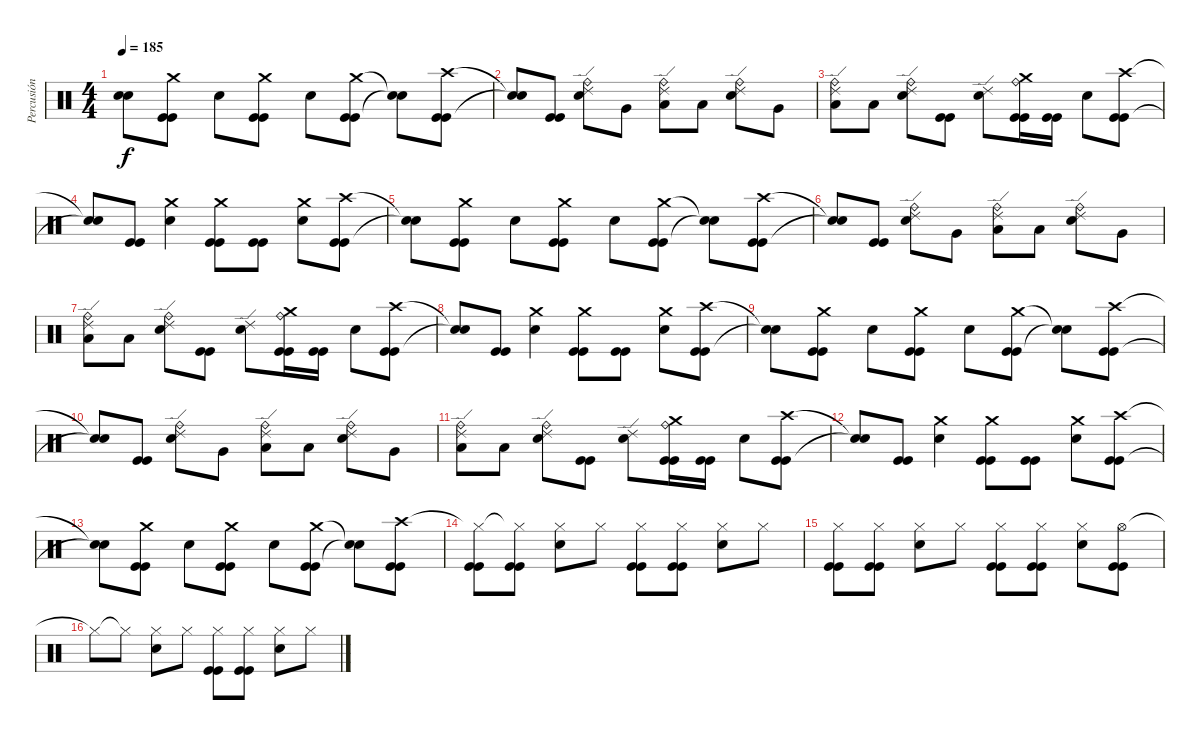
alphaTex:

\track ("Percusión" "Percusión") {instrument percussion}
\staff {score}
\articulation defaults
\ts (4 4)
\tempo 185
\clef neutral
\ks c
("Snare (hit)"{t} "Snare (hit)"{t}).8{dy f} ("Crash medium (hit)" "Kick (hit)" "Kick (hit)").8 "Electric Snare (hit)".8 ("Crash medium (hit)" "Kick (hit)" "Kick (hit)").8 "Electric Snare (hit)".8 ("Crash medium (hit)" "Kick (hit)" "Kick (hit)").8 ("Snare (hit)"{t} "Snare (hit)"{t}).8 ("Crash high (hit)" "Kick (hit)" "Kick (hit)").8 |
("Snare (hit)"{t} "Snare (hit)"{t}).8 ("Kick (hit)" "Kick (hit)").8 ("Ride (edge) 2" "Ride (bell)" "Electric Snare (hit)").8 "Very Low Tom (hit)".8 ("Ride (edge) 2" "Ride (bell)" "Low Floor Tom (hit)").8 "Low Floor Tom (hit)".8 ("Ride (edge) 2" "Ride (bell)" "Electric Snare (hit)").8 "Very Low Tom (hit)".8 |
("Ride (edge) 2" "Ride (bell)" "Low Floor Tom (hit)").8 "Low Floor Tom (hit)".8 ("Ride (edge) 2" "Ride (bell)" "Electric Snare (hit)").8 ("Kick (hit)" "Kick (hit)").8 ("Ride (edge) 2" "Electric Snare (hit)").8 ("Crash medium (hit)" "Ride (bell)" "Kick (hit)" "Kick (hit)").16 ("Kick (hit)" "Kick (hit)").16 "Electric Snare (hit)".8 ("Crash high (hit)" "Kick (hit)" "Kick (hit)").8 |
("Snare (hit)"{t} "Snare (hit)"{t}).8 ("Kick (hit)" "Kick (hit)").8 ("Crash medium (hit)" "Electric Snare (hit)").4 ("Crash medium (hit)" "Kick (hit)" "Kick (hit)").8 ("Kick (hit)" "Kick (hit)").8 ("Crash medium (hit)" "Electric Snare (hit)").8 ("Crash high (hit)" "Kick (hit)" "Kick (hit)").8 |
("Snare (hit)"{t} "Snare (hit)"{t}).8 ("Crash medium (hit)" "Kick (hit)" "Kick (hit)").8 "Electric Snare (hit)".8 ("Crash medium (hit)" "Kick (hit)" "Kick (hit)").8 "Electric Snare (hit)".8 ("Crash medium (hit)" "Kick (hit)" "Kick (hit)").8 ("Snare (hit)"{t} "Snare (hit)"{t}).8 ("Crash high (hit)" "Kick (hit)" "Kick (hit)").8 |
("Snare (hit)"{t} "Snare (hit)"{t}).8 ("Kick (hit)" "Kick (hit)").8 ("Ride (edge) 2" "Ride (bell)" "Electric Snare (hit)").8 "Very Low Tom (hit)".8 ("Ride (edge) 2" "Ride (bell)" "Low Floor Tom (hit)").8 "Low Floor Tom (hit)".8 ("Ride (edge) 2" "Ride (bell)" "Electric Snare (hit)").8 "Very Low Tom (hit)".8 |
("Ride (edge) 2" "Ride (bell)" "Low Floor Tom (hit)").8 "Low Floor Tom (hit)".8 ("Ride (edge) 2" "Ride (bell)" "Electric Snare (hit)").8 ("Kick (hit)" "Kick (hit)").8 ("Ride (edge) 2" "Electric Snare (hit)").8 ("Crash medium (hit)" "Ride (bell)" "Kick (hit)" "Kick (hit)").16 ("Kick (hit)" "Kick (hit)").16 "Electric Snare (hit)".8 ("Crash high (hit)" "Kick (hit)" "Kick (hit)").8 |
("Snare (hit)"{t} "Snare (hit)"{t}).8 ("Kick (hit)" "Kick (hit)").8 ("Crash medium (hit)" "Electric Snare (hit)").4 ("Crash medium (hit)" "Kick (hit)" "Kick (hit)").8 ("Kick (hit)" "Kick (hit)").8 ("Crash medium (hit)" "Electric Snare (hit)").8 ("Crash high (hit)" "Kick (hit)" "Kick (hit)").8 |
("Snare (hit)"{t} "Snare (hit)"{t}).8 ("Crash medium (hit)" "Kick (hit)" "Kick (hit)").8 "Electric Snare (hit)".8 ("Crash medium (hit)" "Kick (hit)" "Kick (hit)").8 "Electric Snare (hit)".8 ("Crash medium (hit)" "Kick (hit)" "Kick (hit)").8 ("Snare (hit)"{t} "Snare (hit)"{t}).8 ("Crash high (hit)" "Kick (hit)" "Kick (hit)").8 |
("Snare (hit)"{t} "Snare (hit)"{t}).8 ("Kick (hit)" "Kick (hit)").8 ("Ride (edge) 2" "Ride (bell)" "Electric Snare (hit)").8 "Very Low Tom (hit)".8 ("Ride (edge) 2" "Ride (bell)" "Low Floor Tom (hit)").8 "Low Floor Tom (hit)".8 ("Ride (edge) 2" "Ride (bell)" "Electric Snare (hit)").8 "Very Low Tom (hit)".8 |
("Ride (edge) 2" "Ride (bell)" "Low Floor Tom (hit)").8 "Low Floor Tom (hit)".8 ("Ride (edge) 2" "Ride (bell)" "Electric Snare (hit)").8 ("Kick (hit)" "Kick (hit)").8 ("Ride (edge) 2" "Electric Snare (hit)").8 ("Crash medium (hit)" "Ride (bell)" "Kick (hit)" "Kick (hit)").16 ("Kick (hit)" "Kick (hit)").16 "Electric Snare (hit)".8 ("Crash high (hit)" "Kick (hit)" "Kick (hit)").8 |
("Snare (hit)"{t} "Snare (hit)"{t}).8 ("Kick (hit)" "Kick (hit)").8 ("Crash medium (hit)" "Electric Snare (hit)").4 ("Crash medium (hit)" "Kick (hit)" "Kick (hit)").8 ("Kick (hit)" "Kick (hit)").8 ("Crash medium (hit)" "Electric Snare (hit)").8 ("Crash high (hit)" "Kick (hit)" "Kick (hit)").8 |
("Snare (hit)"{t} "Snare (hit)"{t}).8 ("Crash medium (hit)" "Kick (hit)" "Kick (hit)").8 "Electric Snare (hit)".8 ("Crash medium (hit)" "Kick (hit)" "Kick (hit)").8 "Electric Snare (hit)".8 ("Crash medium (hit)" "Kick (hit)" "Kick (hit)").8 ("Snare (hit)"{t} "Snare (hit)"{t}).8 ("Crash high (hit)" "Kick (hit)" "Kick (hit)").8 |
("Hi-Hat (closed)"{t} "Kick (hit)" "Kick (hit)").8 ("Hi-Hat (closed)"{t} "Kick (hit)" "Kick (hit)").8 ("Hi-Hat (closed)" "Electric Snare (hit)").8 "Hi-Hat (closed)".8 ("Hi-Hat (closed)" "Kick (hit)" "Kick (hit)").8 ("Hi-Hat (closed)" "Kick (hit)" "Kick (hit)").8 ("Hi-Hat (closed)" "Electric Snare (hit)").8 "Hi-Hat (closed)".8 |
("Hi-Hat (closed)" "Kick (hit)" "Kick (hit)").8 ("Hi-Hat (closed)" "Kick (hit)" "Kick (hit)").8 ("Hi-Hat (closed)" "Electric Snare (hit)").8 "Hi-Hat (closed)".8 ("Hi-Hat (closed)" "Kick (hit)" "Kick (hit)").8 ("Hi-Hat (closed)" "Kick (hit)" "Kick (hit)").8 ("Hi-Hat (closed)" "Electric Snare (hit)").8 ("Hi-Hat (open)" "Kick (hit)" "Kick (hit)").8 |
"Hi-Hat (closed)"{t}.8 "Hi-Hat (closed)"{t}.8 ("Hi-Hat (closed)" "Electric Snare (hit)").8 "Hi-Hat (closed)".8 ("Hi-Hat (closed)" "Kick (hit)" "Kick (hit)").8 ("Hi-Hat (closed)" "Kick (hit)" "Kick (hit)").8 ("Hi-Hat (closed)" "Electric Snare (hit)").8 "Hi-Hat (closed)".8
